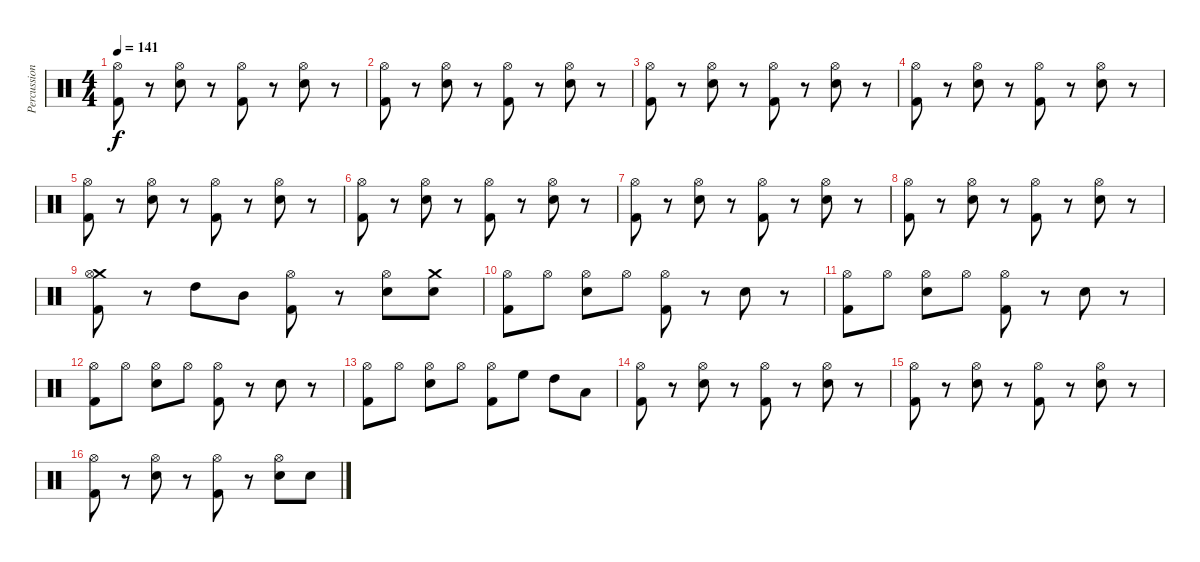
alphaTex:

\track ("Percussion" "Percussion") {instrument percussion}
\staff {score}
\articulation defaults
\ts (4 4)
\tempo 141
\clef neutral
\ks c
("Hi-Hat (open)" "Kick (hit) 2").8{dy f} r.8 ("Hi-Hat (open)" "Electric Snare (hit)").8 r.8 ("Hi-Hat (open)" "Kick (hit) 2").8 r.8 ("Hi-Hat (open)" "Electric Snare (hit)").8 r.8 |
("Hi-Hat (open)" "Kick (hit) 2").8 r.8 ("Hi-Hat (open)" "Electric Snare (hit)").8 r.8 ("Hi-Hat (open)" "Kick (hit) 2").8 r.8 ("Hi-Hat (open)" "Electric Snare (hit)").8 r.8 |
("Hi-Hat (open)" "Kick (hit) 2").8 r.8 ("Hi-Hat (open)" "Electric Snare (hit)").8 r.8 ("Hi-Hat (open)" "Kick (hit) 2").8 r.8 ("Hi-Hat (open)" "Electric Snare (hit)").8 r.8 |
("Hi-Hat (open)" "Kick (hit) 2").8 r.8 ("Hi-Hat (open)" "Electric Snare (hit)").8 r.8 ("Hi-Hat (open)" "Kick (hit) 2").8 r.8 ("Hi-Hat (open)" "Electric Snare (hit)").8 r.8 |
("Hi-Hat (open)" "Kick (hit) 2").8 r.8 ("Hi-Hat (open)" "Electric Snare (hit)").8 r.8 ("Hi-Hat (open)" "Kick (hit) 2").8 r.8 ("Hi-Hat (open)" "Electric Snare (hit)").8 r.8 |
("Hi-Hat (open)" "Kick (hit) 2").8 r.8 ("Hi-Hat (open)" "Electric Snare (hit)").8 r.8 ("Hi-Hat (open)" "Kick (hit) 2").8 r.8 ("Hi-Hat (open)" "Electric Snare (hit)").8 r.8 |
("Hi-Hat (open)" "Kick (hit) 2").8 r.8 ("Hi-Hat (open)" "Electric Snare (hit)").8 r.8 ("Hi-Hat (open)" "Kick (hit) 2").8 r.8 ("Hi-Hat (open)" "Electric Snare (hit)").8 r.8 |
("Hi-Hat (open)" "Kick (hit) 2").8 r.8 ("Hi-Hat (open)" "Electric Snare (hit)").8 r.8 ("Hi-Hat (open)" "Kick (hit) 2").8 r.8 ("Hi-Hat (open)" "Electric Snare (hit)").8 r.8 |
("Crash medium (hit)" "Hi-Hat (open)" "Kick (hit) 2").8 r.8 "High Tom (hit)".8 "Mid Tom (hit)".8 ("Hi-Hat (open)" "Kick (hit) 2").8 r.8 ("Hi-Hat (open)" "Electric Snare (hit)").8 ("Crash medium (hit)" "Electric Snare (hit)").8 |
("Hi-Hat (open)" "Kick (hit) 2").8 "Hi-Hat (open)".8 ("Hi-Hat (open)" "Electric Snare (hit)").8 "Hi-Hat (open)".8 ("Hi-Hat (open)" "Kick (hit) 2").8 r.8 "Electric Snare (hit)".8 r.8 |
("Hi-Hat (open)" "Kick (hit) 2").8 "Hi-Hat (open)".8 ("Hi-Hat (open)" "Electric Snare (hit)").8 "Hi-Hat (open)".8 ("Hi-Hat (open)" "Kick (hit) 2").8 r.8 "Electric Snare (hit)".8 r.8 |
("Hi-Hat (open)" "Kick (hit) 2").8 "Hi-Hat (open)".8 ("Hi-Hat (open)" "Electric Snare (hit)").8 "Hi-Hat (open)".8 ("Hi-Hat (open)" "Kick (hit) 2").8 r.8 "Electric Snare (hit)".8 r.8 |
("Hi-Hat (open)" "Kick (hit) 2").8 "Hi-Hat (open)".8 ("Hi-Hat (open)" "Electric Snare (hit)").8 "Hi-Hat (open)".8 ("Hi-Hat (open)" "Kick (hit) 2").8 "High Floor Tom (hit)".8 "High Tom (hit)".8 "Low Tom (hit)".8 |
("Hi-Hat (open)" "Kick (hit) 2").8 r.8 ("Hi-Hat (open)" "Electric Snare (hit)").8 r.8 ("Hi-Hat (open)" "Kick (hit) 2").8 r.8 ("Hi-Hat (open)" "Electric Snare (hit)").8 r.8 |
("Hi-Hat (open)" "Kick (hit) 2").8 r.8 ("Hi-Hat (open)" "Electric Snare (hit)").8 r.8 ("Hi-Hat (open)" "Kick (hit) 2").8 r.8 ("Hi-Hat (open)" "Electric Snare (hit)").8 r.8 |
("Hi-Hat (open)" "Kick (hit) 2").8 r.8 ("Hi-Hat (open)" "Electric Snare (hit)").8 r.8 ("Hi-Hat (open)" "Kick (hit) 2").8 r.8 ("Hi-Hat (open)" "Electric Snare (hit)").8 "Electric Snare (hit)".8
